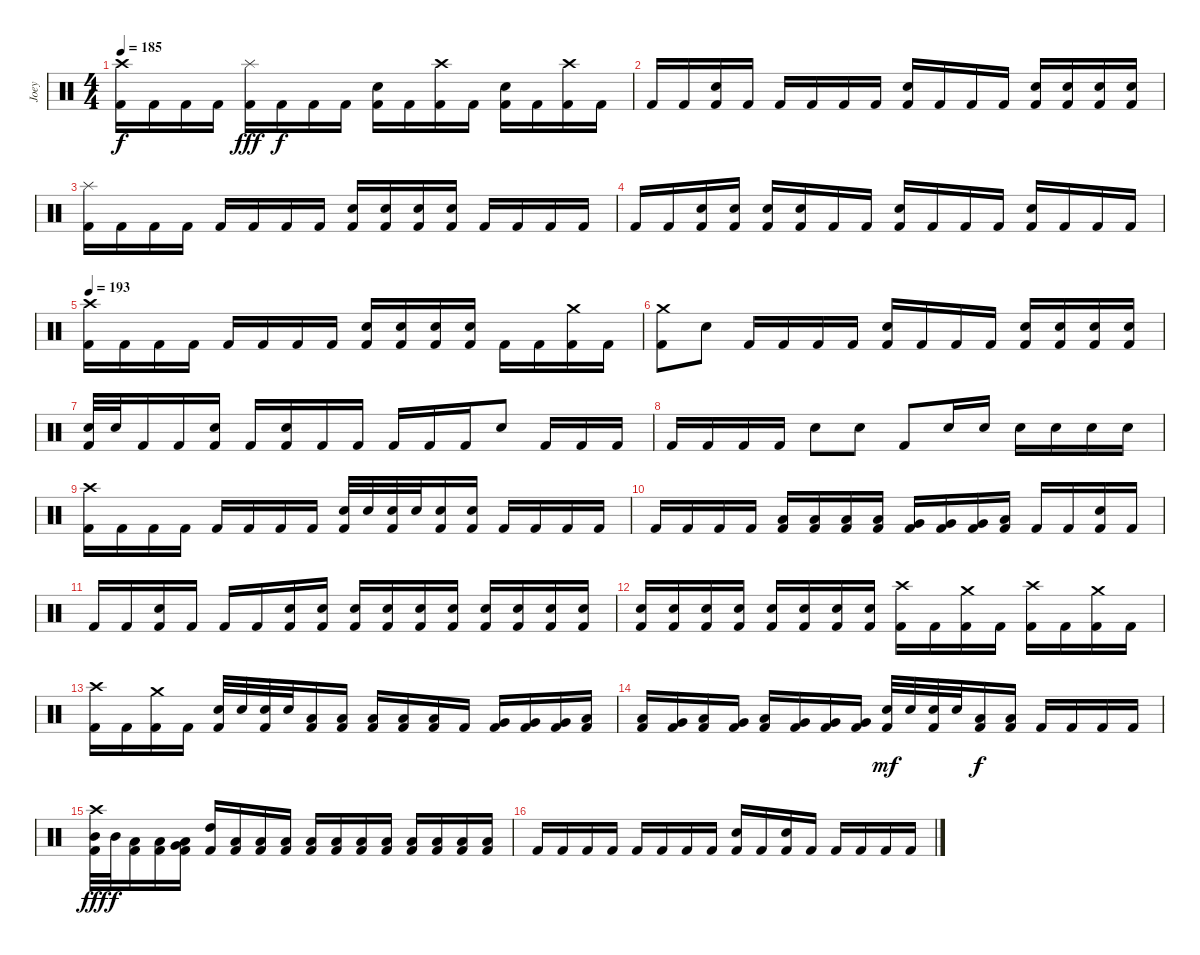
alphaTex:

\track ("Joey" "Joey") {instrument percussion}
\staff {score}
\articulation defaults
\ts (4 4)
\tempo 185
\clef neutral
\ks c
("Crash high (hit)" "Kick (hit) 2").16{dy f} "Kick (hit) 2".16 "Kick (hit) 2".16 "Kick (hit) 2".16 ("Splash (hit)" "Kick (hit) 2").16{dy fff} "Kick (hit) 2".16{dy f} "Kick (hit) 2".16 "Kick (hit) 2".16 ("Electric Snare (hit)" "Kick (hit) 2").16 "Kick (hit) 2".16 ("Crash high (hit)" "Kick (hit) 2").16 "Kick (hit) 2".16 ("Electric Snare (hit)" "Kick (hit) 2").16 "Kick (hit) 2".16 ("Crash high (hit)" "Kick (hit) 2").16 "Kick (hit) 2".16 |
"Kick (hit) 2".16 "Kick (hit) 2".16 ("Electric Snare (hit)" "Kick (hit) 2").16 "Kick (hit) 2".16 "Kick (hit) 2".16 "Kick (hit) 2".16 "Kick (hit) 2".16 "Kick (hit) 2".16 ("Electric Snare (hit)" "Kick (hit) 2").16 "Kick (hit) 2".16 "Kick (hit) 2".16 "Kick (hit) 2".16 ("Electric Snare (hit)" "Kick (hit) 2").16 ("Electric Snare (hit)" "Kick (hit) 2").16 ("Electric Snare (hit)" "Kick (hit) 2").16 ("Electric Snare (hit)" "Kick (hit) 2").16 |
("Splash (hit)" "Kick (hit) 2").16 "Kick (hit) 2".16 "Kick (hit) 2".16 "Kick (hit) 2".16 "Kick (hit) 2".16 "Kick (hit) 2".16 "Kick (hit) 2".16 "Kick (hit) 2".16 ("Electric Snare (hit)" "Kick (hit) 2").16 ("Electric Snare (hit)" "Kick (hit) 2").16 ("Electric Snare (hit)" "Kick (hit) 2").16 ("Electric Snare (hit)" "Kick (hit) 2").16 "Kick (hit) 2".16 "Kick (hit) 2".16 "Kick (hit) 2".16 "Kick (hit) 2".16 |
"Kick (hit) 2".16 "Kick (hit) 2".16 ("Electric Snare (hit)" "Kick (hit) 2").16 ("Electric Snare (hit)" "Kick (hit) 2").16 ("Electric Snare (hit)" "Kick (hit) 2").16 ("Electric Snare (hit)" "Kick (hit) 2").16 "Kick (hit) 2".16 "Kick (hit) 2".16 ("Electric Snare (hit)" "Kick (hit) 2").16 "Kick (hit) 2".16 "Kick (hit) 2".16 "Kick (hit) 2".16 ("Electric Snare (hit)" "Kick (hit) 2").16 "Kick (hit) 2".16 "Kick (hit) 2".16 "Kick (hit) 2".16 |
\tempo 193
("Crash high (hit)" "Kick (hit) 2").16 "Kick (hit) 2".16 "Kick (hit) 2".16 "Kick (hit) 2".16 "Kick (hit) 2".16 "Kick (hit) 2".16 "Kick (hit) 2".16 "Kick (hit) 2".16 ("Electric Snare (hit)" "Kick (hit) 2").16 ("Electric Snare (hit)" "Kick (hit) 2").16 ("Electric Snare (hit)" "Kick (hit) 2").16 ("Electric Snare (hit)" "Kick (hit) 2").16 "Kick (hit) 2".16 "Kick (hit) 2".16 ("Crash medium (hit)" "Kick (hit) 2").16 "Kick (hit) 2".16 |
("Crash medium (hit)" "Kick (hit) 2").8 "Electric Snare (hit)".8 "Kick (hit) 2".16 "Kick (hit) 2".16 "Kick (hit) 2".16 "Kick (hit) 2".16 ("Electric Snare (hit)" "Kick (hit) 2").16 "Kick (hit) 2".16 "Kick (hit) 2".16 "Kick (hit) 2".16 ("Electric Snare (hit)" "Kick (hit) 2").16 ("Electric Snare (hit)" "Kick (hit) 2").16 ("Electric Snare (hit)" "Kick (hit) 2").16 ("Electric Snare (hit)" "Kick (hit) 2").16 |
("Electric Snare (hit)" "Kick (hit) 2").32 "Electric Snare (hit)".32 "Kick (hit) 2".16 "Kick (hit) 2".16 ("Electric Snare (hit)" "Kick (hit) 2").16 "Kick (hit) 2".16 ("Electric Snare (hit)" "Kick (hit) 2").16 "Kick (hit) 2".16 "Kick (hit) 2".16 "Kick (hit) 2".16 "Kick (hit) 2".16 "Kick (hit) 2".16 "Electric Snare (hit)".8 "Kick (hit) 2".16 "Kick (hit) 2".16 "Kick (hit) 2".16 |
"Kick (hit) 2".16 "Kick (hit) 2".16 "Kick (hit) 2".16 "Kick (hit) 2".16 "Electric Snare (hit)".8 "Electric Snare (hit)".8 "Kick (hit) 2".8 "Electric Snare (hit)".16 "Electric Snare (hit)".16 "Electric Snare (hit)".16 "Electric Snare (hit)".16 "Electric Snare (hit)".16 "Electric Snare (hit)".16 |
("Crash high (hit)" "Kick (hit) 2").16 "Kick (hit) 2".16 "Kick (hit) 2".16 "Kick (hit) 2".16 "Kick (hit) 2".16 "Kick (hit) 2".16 "Kick (hit) 2".16 "Kick (hit) 2".16 ("Electric Snare (hit)" "Kick (hit) 2").32 "Electric Snare (hit)".32 ("Electric Snare (hit)" "Kick (hit) 2").32 "Electric Snare (hit)".32 ("Electric Snare (hit)" "Kick (hit) 2").16 ("Electric Snare (hit)" "Kick (hit) 2").16 "Kick (hit) 2".16 "Kick (hit) 2".16 "Kick (hit) 2".16 "Kick (hit) 2".16 |
"Kick (hit) 2".16 "Kick (hit) 2".16 "Kick (hit) 2".16 "Kick (hit) 2".16 ("Low Floor Tom (hit)" "Kick (hit) 2").16 ("Low Floor Tom (hit)" "Kick (hit) 2").16 ("Low Floor Tom (hit)" "Kick (hit) 2").16 ("Low Floor Tom (hit)" "Kick (hit) 2").16 ("Very Low Tom (hit)" "Kick (hit) 2").16 ("Very Low Tom (hit)" "Kick (hit) 2").16 ("Very Low Tom (hit)" "Kick (hit) 2").16 ("Low Floor Tom (hit)" "Kick (hit) 2").16 "Kick (hit) 2".16 "Kick (hit) 2".16 ("Electric Snare (hit)" "Kick (hit) 2").16 "Kick (hit) 2".16 |
"Kick (hit) 2".16 "Kick (hit) 2".16 ("Electric Snare (hit)" "Kick (hit) 2").16 "Kick (hit) 2".16 "Kick (hit) 2".16 "Kick (hit) 2".16 ("Electric Snare (hit)" "Kick (hit) 2").16 ("Electric Snare (hit)" "Kick (hit) 2").16 ("Electric Snare (hit)" "Kick (hit) 2").16 ("Electric Snare (hit)" "Kick (hit) 2").16 ("Electric Snare (hit)" "Kick (hit) 2").16 ("Electric Snare (hit)" "Kick (hit) 2").16 ("Electric Snare (hit)" "Kick (hit) 2").16 ("Electric Snare (hit)" "Kick (hit) 2").16 ("Electric Snare (hit)" "Kick (hit) 2").16 ("Electric Snare (hit)" "Kick (hit) 2").16 |
("Electric Snare (hit)" "Kick (hit) 2").16 ("Electric Snare (hit)" "Kick (hit) 2").16 ("Electric Snare (hit)" "Kick (hit) 2").16 ("Electric Snare (hit)" "Kick (hit) 2").16 ("Electric Snare (hit)" "Kick (hit) 2").16 ("Electric Snare (hit)" "Kick (hit) 2").16 ("Electric Snare (hit)" "Kick (hit) 2").16 ("Electric Snare (hit)" "Kick (hit) 2").16 ("Crash high (hit)" "Kick (hit) 2").16 "Kick (hit) 2".16 ("Crash medium (hit)" "Kick (hit) 2").16 "Kick (hit) 2".16 ("Crash high (hit)" "Kick (hit) 2").16 "Kick (hit) 2".16 ("Crash medium (hit)" "Kick (hit) 2").16 "Kick (hit) 2".16 |
("Crash high (hit)" "Kick (hit) 2").16 "Kick (hit) 2".16 ("Crash medium (hit)" "Kick (hit) 2").16 "Kick (hit) 2".16 ("Electric Snare (hit)" "Kick (hit) 2").32 "Electric Snare (hit)".32 ("Electric Snare (hit)" "Kick (hit) 2").32 "Electric Snare (hit)".32 ("Low Tom (hit)" "Kick (hit) 2").16 ("Low Tom (hit)" "Kick (hit) 2").16 ("Low Tom (hit)" "Kick (hit) 2").16 ("Low Tom (hit)" "Kick (hit) 2").16 ("Low Tom (hit)" "Kick (hit) 2").16 "Kick (hit) 2".16 ("Very Low Tom (hit)" "Kick (hit) 2").16 ("Very Low Tom (hit)" "Kick (hit) 2").16 ("Very Low Tom (hit)" "Kick (hit) 2").16 ("Low Floor Tom (hit)" "Kick (hit) 2").16 |
("Low Floor Tom (hit)" "Kick (hit) 2").16 ("Very Low Tom (hit)" "Kick (hit) 2").16 ("Low Tom (hit)" "Kick (hit) 2").16 ("Very Low Tom (hit)" "Kick (hit) 2").16 ("Low Floor Tom (hit)" "Kick (hit) 2").16 ("Very Low Tom (hit)" "Kick (hit) 2").16 ("Very Low Tom (hit)" "Kick (hit) 2").16 ("Very Low Tom (hit)" "Kick (hit) 2").16 ("Electric Snare (hit)" "Kick (hit) 2").32{dy mf} "Electric Snare (hit)".32 ("Electric Snare (hit)" "Kick (hit) 2").32 "Electric Snare (hit)".32 ("Low Floor Tom (hit)" "Kick (hit) 2").16{dy f} ("Low Floor Tom (hit)" "Kick (hit) 2").16 "Kick (hit) 2".16 "Kick (hit) 2".16 "Kick (hit) 2".16 "Kick (hit) 2".16 |
("Crash high (hit)" "Mid Tom (hit)" "Kick (hit) 2").32{dy fff} "Mid Tom (hit)".32{dy f} ("Low Tom (hit)" "Kick (hit) 2").16 ("Low Tom (hit)" "Kick (hit) 2").16 ("Very Low Tom (hit)" "Low Floor Tom (hit)" "Kick (hit) 2").16 ("High Tom (hit)" "Kick (hit) 2").16 ("Low Floor Tom (hit)" "Kick (hit) 2").16 ("Low Floor Tom (hit)" "Kick (hit) 2").16 ("Low Floor Tom (hit)" "Kick (hit) 2").16 ("Low Floor Tom (hit)" "Kick (hit) 2").16 ("Low Floor Tom (hit)" "Kick (hit) 2").16 ("Low Floor Tom (hit)" "Kick (hit) 2").16 ("Low Floor Tom (hit)" "Kick (hit) 2").16 ("Low Floor Tom (hit)" "Kick (hit) 2").16 ("Low Floor Tom (hit)" "Kick (hit) 2").16 ("Low Floor Tom (hit)" "Kick (hit) 2").16 ("Low Floor Tom (hit)" "Kick (hit) 2").16 |
"Kick (hit) 2".16 "Kick (hit) 2".16 "Kick (hit) 2".16 "Kick (hit) 2".16 "Kick (hit) 2".16 "Kick (hit) 2".16 "Kick (hit) 2".16 "Kick (hit) 2".16 ("Electric Snare (hit)" "Kick (hit) 2").16 "Kick (hit) 2".16 ("Electric Snare (hit)" "Kick (hit) 2").16 "Kick (hit) 2".16 "Kick (hit) 2".16 "Kick (hit) 2".16 "Kick (hit) 2".16 "Kick (hit) 2".16
